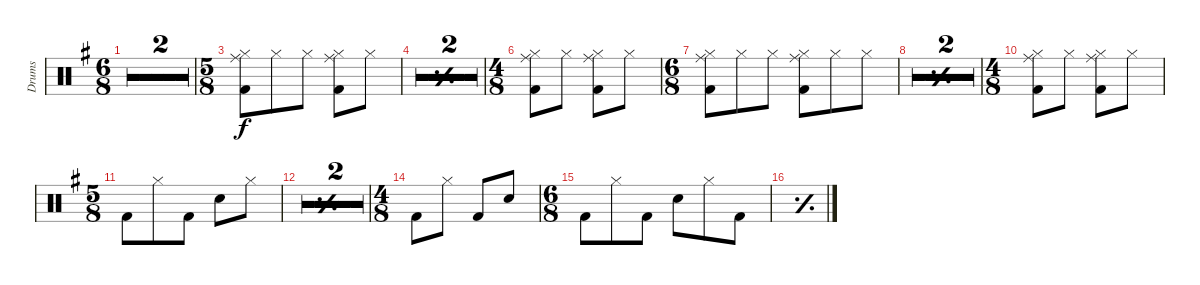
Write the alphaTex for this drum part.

\defaultSystemsLayout 4
\bracketExtendMode groupsimilarinstruments
\otherSystemsTrackNameOrientation horizontal
\track ("Drumkit" "Drums") {multiBarRest instrument percussion}
\staff {score}
\articulation defaults
\ts (6 8)
\tempo 192
\clef neutral
\ks g
r.2{d dy f} |
\ts (4 8)
\beaming (8 2 2)
r.2 |
\ts (5 8)
\beaming (8 3 2)
("Ride (middle)"{acc forcenatural} "Kick (hit) 2"{acc forcenatural} "Hi-Hat (closed)"{acc forcenatural}).8 "Hi-Hat (closed)"{acc forcenatural}.8 "Hi-Hat (closed)"{acc forcenatural}.8 ("Ride (middle)"{acc forcenatural} "Kick (hit) 2"{acc forcenatural} "Hi-Hat (closed)"{acc forcenatural}).8 "Hi-Hat (closed)"{acc forcenatural}.8 |
\simile simple
|
|
\ts (4 8)
\beaming (8 2 2)
\simile none
("Ride (middle)"{acc forcenatural} "Kick (hit) 2"{acc forcenatural} "Hi-Hat (closed)"{acc forcenatural}).8 "Hi-Hat (closed)"{acc forcenatural}.8 ("Ride (middle)"{acc forcenatural} "Kick (hit) 2"{acc forcenatural} "Hi-Hat (closed)"{acc forcenatural}).8 "Hi-Hat (closed)"{acc forcenatural}.8 |
\ts (6 8)
\beaming (8 3 3)
("Ride (middle)"{acc forcenatural} "Kick (hit) 2"{acc forcenatural} "Hi-Hat (closed)"{acc forcenatural}).8 "Hi-Hat (closed)"{acc forcenatural}.8 "Hi-Hat (closed)"{acc forcenatural}.8 ("Ride (middle)"{acc forcenatural} "Kick (hit) 2"{acc forcenatural} "Hi-Hat (closed)"{acc forcenatural}).8 "Hi-Hat (closed)"{acc forcenatural}.8 "Hi-Hat (closed)"{acc forcenatural}.8 |
\simile simple
|
|
\ts (4 8)
\beaming (8 2 2)
\simile none
("Ride (middle)"{acc forcenatural} "Kick (hit) 2"{acc forcenatural} "Hi-Hat (closed)"{acc forcenatural}).8 "Hi-Hat (closed)"{acc forcenatural}.8 ("Ride (middle)"{acc forcenatural} "Kick (hit) 2"{acc forcenatural} "Hi-Hat (closed)"{acc forcenatural}).8 "Hi-Hat (closed)"{acc forcenatural}.8 |
\ts (5 8)
\beaming (8 3 3)
"Kick (hit) 2"{acc forcenatural}.8 "Hi-Hat (closed)"{acc forcenatural}.8 "Kick (hit) 2"{acc forcenatural}.8 "Snare (hit) 2"{acc forcenatural}.8 "Hi-Hat (closed)"{acc forcenatural}.8 |
\simile simple
|
|
\ts (4 8)
\beaming (8 2 2)
\simile none "Kick (hit) 2"{acc forcenatural}.8 "Hi-Hat (closed)"{acc forcenatural}.8 "Kick (hit) 2"{acc forcenatural}.8 "Snare (hit) 2"{acc forcenatural}.8
|
\ts (6 8)
\beaming (8 3 3)
"Kick (hit) 2"{acc forcenatural}.8 "Hi-Hat (closed)"{acc forcenatural}.8 "Kick (hit) 2"{acc forcenatural}.8 "Snare (hit) 2"{acc forcenatural}.8 "Hi-Hat (closed)"{acc forcenatural}.8 "Kick (hit) 2"{acc forcenatural}.8 |
\simile simple
